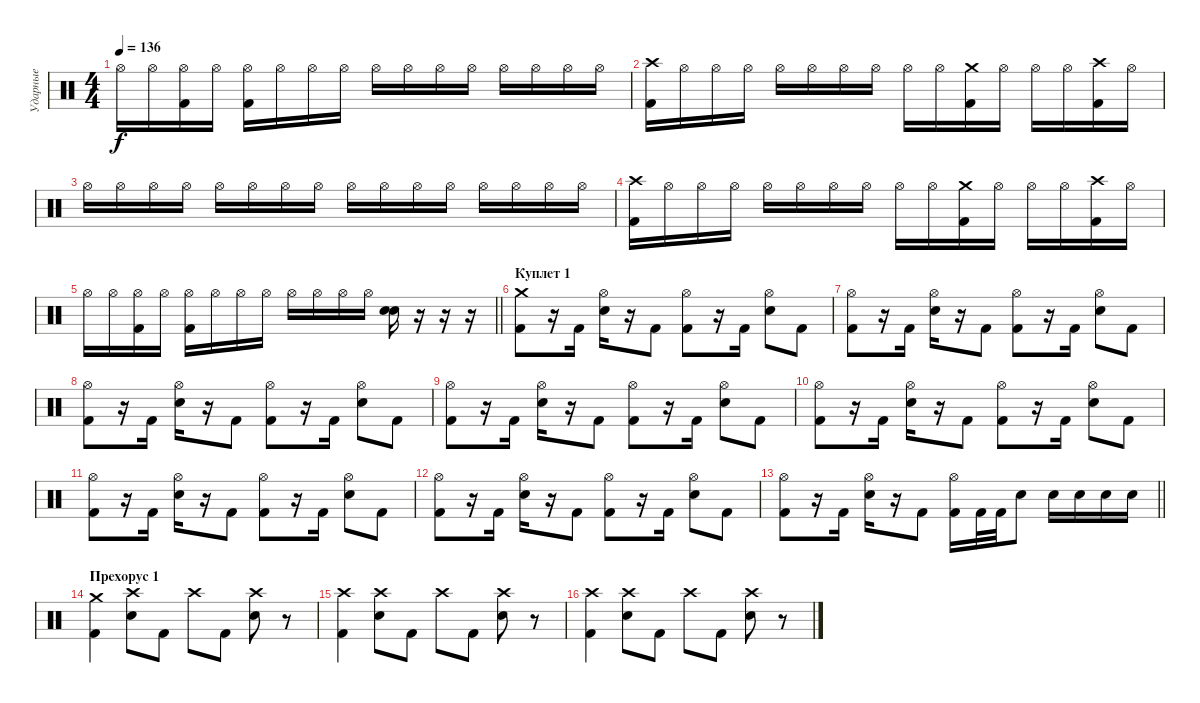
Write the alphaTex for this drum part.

\track ("Ударные" "Ударные") {instrument percussion}
\staff {score}
\articulation defaults
\ts (4 4)
\tempo 136
\clef neutral
\ks c "Hi-Hat (open)".16{dy f} "Hi-Hat (open)".16
("Hi-Hat (open)" "Kick (hit) 2").16 "Hi-Hat (open)".16 ("Hi-Hat (open)" "Kick (hit) 2").16 "Hi-Hat (open)".16 "Hi-Hat (open)".16 "Hi-Hat (open)".16 "Hi-Hat (open)".16 "Hi-Hat (open)".16 "Hi-Hat (open)".16 "Hi-Hat (open)".16 "Hi-Hat (open)".16 "Hi-Hat (open)".16 "Hi-Hat (open)".16 "Hi-Hat (open)".16 |
("Crash high (hit)" "Kick (hit) 2").16 "Hi-Hat (open)".16 "Hi-Hat (open)".16 "Hi-Hat (open)".16 "Hi-Hat (open)".16 "Hi-Hat (open)".16 "Hi-Hat (open)".16 "Hi-Hat (open)".16 "Hi-Hat (open)".16 "Hi-Hat (open)".16 ("Crash medium (hit)" "Kick (hit) 2").16 "Hi-Hat (open)".16 "Hi-Hat (open)".16 "Hi-Hat (open)".16 ("Crash high (hit)" "Kick (hit) 2").16 "Hi-Hat (open)".16 |
"Hi-Hat (open)".16 "Hi-Hat (open)".16 "Hi-Hat (open)".16 "Hi-Hat (open)".16 "Hi-Hat (open)".16 "Hi-Hat (open)".16 "Hi-Hat (open)".16 "Hi-Hat (open)".16 "Hi-Hat (open)".16 "Hi-Hat (open)".16 "Hi-Hat (open)".16 "Hi-Hat (open)".16 "Hi-Hat (open)".16 "Hi-Hat (open)".16 "Hi-Hat (open)".16 "Hi-Hat (open)".16 |
("Crash high (hit)" "Kick (hit) 2").16 "Hi-Hat (open)".16 "Hi-Hat (open)".16 "Hi-Hat (open)".16 "Hi-Hat (open)".16 "Hi-Hat (open)".16 "Hi-Hat (open)".16 "Hi-Hat (open)".16 "Hi-Hat (open)".16 "Hi-Hat (open)".16 ("Crash medium (hit)" "Kick (hit) 2").16 "Hi-Hat (open)".16 "Hi-Hat (open)".16 "Hi-Hat (open)".16 ("Crash high (hit)" "Kick (hit) 2").16 "Hi-Hat (open)".16 |
\barLineRight lightlight "Hi-Hat (open)".16 "Hi-Hat (open)".16
("Hi-Hat (open)" "Kick (hit) 2").16 "Hi-Hat (open)".16 ("Hi-Hat (open)" "Kick (hit) 2").16 "Hi-Hat (open)".16 "Hi-Hat (open)".16 "Hi-Hat (open)".16 "Hi-Hat (open)".16 "Hi-Hat (open)".16 "Hi-Hat (open)".16 "Hi-Hat (open)".16 ("Snare (hit) 2" "Snare (hit) 2").16 r.16 r.16 r.16 |
\section ("" "Куплет 1")
("Crash medium (hit)" "Kick (hit) 2").8 r.16 "Kick (hit) 2".16 ("Hi-Hat (open)" "Snare (hit) 2").16 r.16 "Kick (hit) 2".8 ("Hi-Hat (open)" "Kick (hit) 2").8 r.16 "Kick (hit) 2".16 ("Hi-Hat (open)" "Snare (hit) 2").8 "Kick (hit) 2".8 |
("Hi-Hat (open)" "Kick (hit) 2").8 r.16 "Kick (hit) 2".16 ("Hi-Hat (open)" "Snare (hit) 2").16 r.16 "Kick (hit) 2".8 ("Hi-Hat (open)" "Kick (hit) 2").8 r.16 "Kick (hit) 2".16 ("Hi-Hat (open)" "Snare (hit) 2").8 "Kick (hit) 2".8 |
("Hi-Hat (open)" "Kick (hit) 2").8 r.16 "Kick (hit) 2".16 ("Hi-Hat (open)" "Snare (hit) 2").16 r.16 "Kick (hit) 2".8 ("Hi-Hat (open)" "Kick (hit) 2").8 r.16 "Kick (hit) 2".16 ("Hi-Hat (open)" "Snare (hit) 2").8 "Kick (hit) 2".8 |
("Hi-Hat (open)" "Kick (hit) 2").8 r.16 "Kick (hit) 2".16 ("Hi-Hat (open)" "Snare (hit) 2").16 r.16 "Kick (hit) 2".8 ("Hi-Hat (open)" "Kick (hit) 2").8 r.16 "Kick (hit) 2".16 ("Hi-Hat (open)" "Snare (hit) 2").8 "Kick (hit) 2".8 |
("Hi-Hat (open)" "Kick (hit) 2").8 r.16 "Kick (hit) 2".16 ("Hi-Hat (open)" "Snare (hit) 2").16 r.16 "Kick (hit) 2".8 ("Hi-Hat (open)" "Kick (hit) 2").8 r.16 "Kick (hit) 2".16 ("Hi-Hat (open)" "Snare (hit) 2").8 "Kick (hit) 2".8 |
("Hi-Hat (open)" "Kick (hit) 2").8 r.16 "Kick (hit) 2".16 ("Hi-Hat (open)" "Snare (hit) 2").16 r.16 "Kick (hit) 2".8 ("Hi-Hat (open)" "Kick (hit) 2").8 r.16 "Kick (hit) 2".16 ("Hi-Hat (open)" "Snare (hit) 2").8 "Kick (hit) 2".8 |
("Hi-Hat (open)" "Kick (hit) 2").8 r.16 "Kick (hit) 2".16 ("Hi-Hat (open)" "Snare (hit) 2").16 r.16 "Kick (hit) 2".8 ("Hi-Hat (open)" "Kick (hit) 2").8 r.16 "Kick (hit) 2".16 ("Hi-Hat (open)" "Snare (hit) 2").8 "Kick (hit) 2".8 |
\barLineRight lightlight
("Hi-Hat (open)" "Kick (hit) 2").8 r.16 "Kick (hit) 2".16 ("Hi-Hat (open)" "Snare (hit) 2").16 r.16 "Kick (hit) 2".8 ("Hi-Hat (open)" "Kick (hit) 2").16 "Kick (hit) 2".32 "Kick (hit) 2".32 "Snare (hit) 2".8 "Snare (hit) 2".16 "Snare (hit) 2".16 "Snare (hit) 2".16 "Snare (hit) 2".16 |
\section ("" "Прехорус 1")
("Crash medium (hit)" "Kick (hit) 2").4 ("Crash high (hit)" "Snare (hit) 2").8 "Kick (hit) 2".8 "Crash high (hit)".8 "Kick (hit) 2".8 ("Crash high (hit)" "Snare (hit) 2").8 r.8 |
("Crash high (hit)" "Kick (hit) 2").4 ("Crash high (hit)" "Snare (hit) 2").8 "Kick (hit) 2".8 "Crash high (hit)".8 "Kick (hit) 2".8 ("Crash high (hit)" "Snare (hit) 2").8 r.8 |
("Crash high (hit)" "Kick (hit) 2").4 ("Crash high (hit)" "Snare (hit) 2").8 "Kick (hit) 2".8 "Crash high (hit)".8 "Kick (hit) 2".8 ("Crash high (hit)" "Snare (hit) 2").8 r.8
